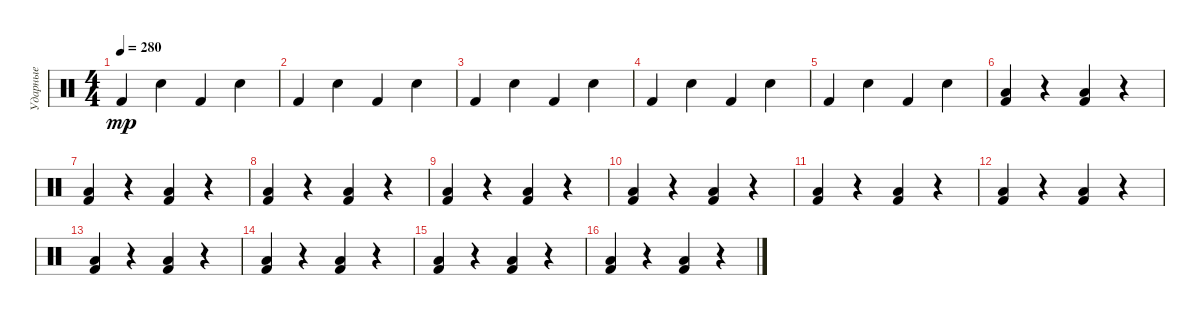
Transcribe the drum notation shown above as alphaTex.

\track ("Ударные" "Ударные") {instrument percussion}
\staff {score}
\articulation defaults
\ts (4 4)
\tempo 280
\clef neutral
\ks c "Kick (hit) 2".4{dy mp} "Snare (hit) 2".4 "Kick (hit) 2".4 "Snare (hit) 2".4
|
"Kick (hit) 2".4 "Snare (hit) 2".4 "Kick (hit) 2".4 "Snare (hit) 2".4 |
"Kick (hit) 2".4 "Snare (hit) 2".4 "Kick (hit) 2".4 "Snare (hit) 2".4 |
"Kick (hit) 2".4 "Snare (hit) 2".4 "Kick (hit) 2".4 "Snare (hit) 2".4 |
"Kick (hit) 2".4 "Snare (hit) 2".4 "Kick (hit) 2".4 "Snare (hit) 2".4 |
("Kick (hit) 2" "Low Tom (hit)").4 r.4 ("Kick (hit) 2" "Low Tom (hit)").4 r.4 |
("Kick (hit) 2" "Low Tom (hit)").4 r.4 ("Kick (hit) 2" "Low Tom (hit)").4 r.4 |
("Kick (hit) 2" "Low Tom (hit)").4 r.4 ("Kick (hit) 2" "Low Tom (hit)").4 r.4 |
("Kick (hit) 2" "Low Tom (hit)").4 r.4 ("Kick (hit) 2" "Low Tom (hit)").4 r.4 |
("Kick (hit) 2" "Low Tom (hit)").4 r.4 ("Kick (hit) 2" "Low Tom (hit)").4 r.4 |
("Kick (hit) 2" "Low Tom (hit)").4 r.4 ("Kick (hit) 2" "Low Tom (hit)").4 r.4 |
("Kick (hit) 2" "Low Tom (hit)").4 r.4 ("Kick (hit) 2" "Low Tom (hit)").4 r.4 |
("Kick (hit) 2" "Low Tom (hit)").4 r.4 ("Kick (hit) 2" "Low Tom (hit)").4 r.4 |
("Kick (hit) 2" "Low Tom (hit)").4 r.4 ("Kick (hit) 2" "Low Tom (hit)").4 r.4 |
("Kick (hit) 2" "Low Tom (hit)").4 r.4 ("Kick (hit) 2" "Low Tom (hit)").4 r.4 |
("Kick (hit) 2" "Low Tom (hit)").4 r.4 ("Kick (hit) 2" "Low Tom (hit)").4 r.4
